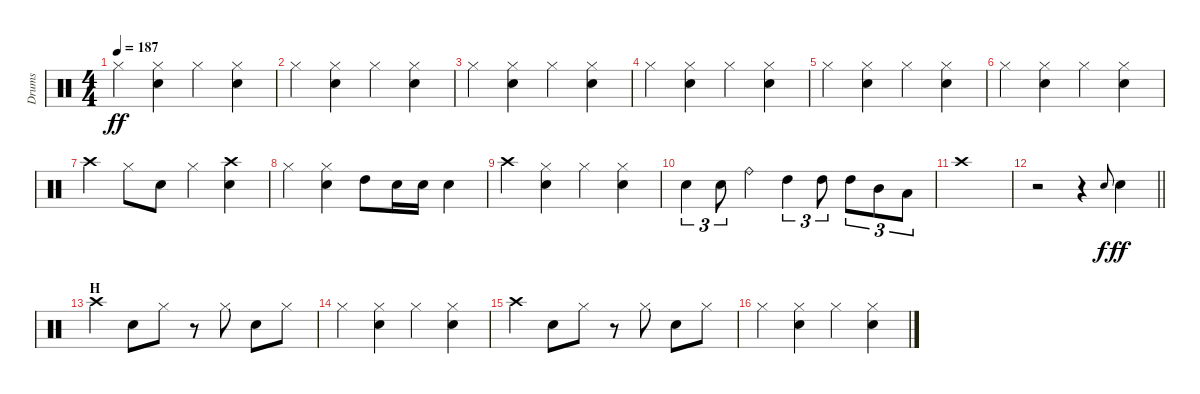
\track ("Drums" "Drums") {instrument percussion}
\staff {score}
\articulation defaults
\ts (4 4)
\tempo 187
\clef neutral
\ks c "Hi-Hat (closed)".4{dy ff}
("Hi-Hat (closed)" "Snare (hit) 2").4 "Hi-Hat (closed)".4 ("Hi-Hat (closed)" "Snare (hit) 2").4 |
"Hi-Hat (closed)".4 ("Hi-Hat (closed)" "Snare (hit) 2").4 "Hi-Hat (closed)".4 ("Hi-Hat (closed)" "Snare (hit) 2").4 |
"Hi-Hat (closed)".4 ("Hi-Hat (closed)" "Snare (hit) 2").4 "Hi-Hat (closed)".4 ("Hi-Hat (closed)" "Snare (hit) 2").4 |
"Hi-Hat (closed)".4 ("Hi-Hat (closed)" "Snare (hit) 2").4 "Hi-Hat (closed)".4 ("Hi-Hat (closed)" "Snare (hit) 2").4 |
"Hi-Hat (closed)".4 ("Hi-Hat (closed)" "Snare (hit) 2").4 "Hi-Hat (closed)".4 ("Hi-Hat (closed)" "Snare (hit) 2").4 |
"Hi-Hat (closed)".4 ("Hi-Hat (closed)" "Snare (hit) 2").4 "Hi-Hat (closed)".4 ("Hi-Hat (closed)" "Snare (hit) 2").4 |
"Crash high (hit)".4 "Hi-Hat (closed)".8 "Snare (hit) 2".8 "Hi-Hat (closed)".4 ("Snare (hit) 2" "Crash high (hit)").4 |
"Hi-Hat (closed)".4 ("Hi-Hat (closed)" "Snare (hit) 2").4 "High Tom (hit)".8 "Snare (hit) 2".16 "Snare (hit) 2".16 "Snare (hit) 2".4 |
"Crash high (hit)".4 ("Hi-Hat (closed)" "Snare (hit) 2").4 "Hi-Hat (closed)".4 ("Hi-Hat (closed)" "Snare (hit) 2").4 |
"Snare (hit) 2".4{tu (3 2)} "Snare (hit) 2".8{tu (3 2)} "Ride (bell)".4 "High Tom (hit)".4{tu (3 2)} "High Tom (hit)".8{tu (3 2)} "High Tom (hit)".8{tu (3 2)} "Mid Tom (hit)".8{tu (3 2)} "Low Tom (hit)".8{tu (3 2)} |
"Crash high (hit)".1 |
\barLineRight lightlight
r.2 r.4 "Snare (hit) 2".8{gr onbeat dy f} "Snare (hit) 2".4{dy ff} |
\section ("" "H")
"Crash high (hit)".4 "Snare (hit) 2".8 "Hi-Hat (closed)".8 r.8 "Hi-Hat (closed)".8 "Snare (hit) 2".8 "Hi-Hat (closed)".8 |
"Hi-Hat (closed)".4 ("Hi-Hat (closed)" "Snare (hit) 2").4 "Hi-Hat (closed)".4 ("Hi-Hat (closed)" "Snare (hit) 2").4 |
"Crash high (hit)".4 "Snare (hit) 2".8 "Hi-Hat (closed)".8 r.8 "Hi-Hat (closed)".8 "Snare (hit) 2".8 "Hi-Hat (closed)".8 |
"Hi-Hat (closed)".4 ("Hi-Hat (closed)" "Snare (hit) 2").4 "Hi-Hat (closed)".4 ("Hi-Hat (closed)" "Snare (hit) 2").4
